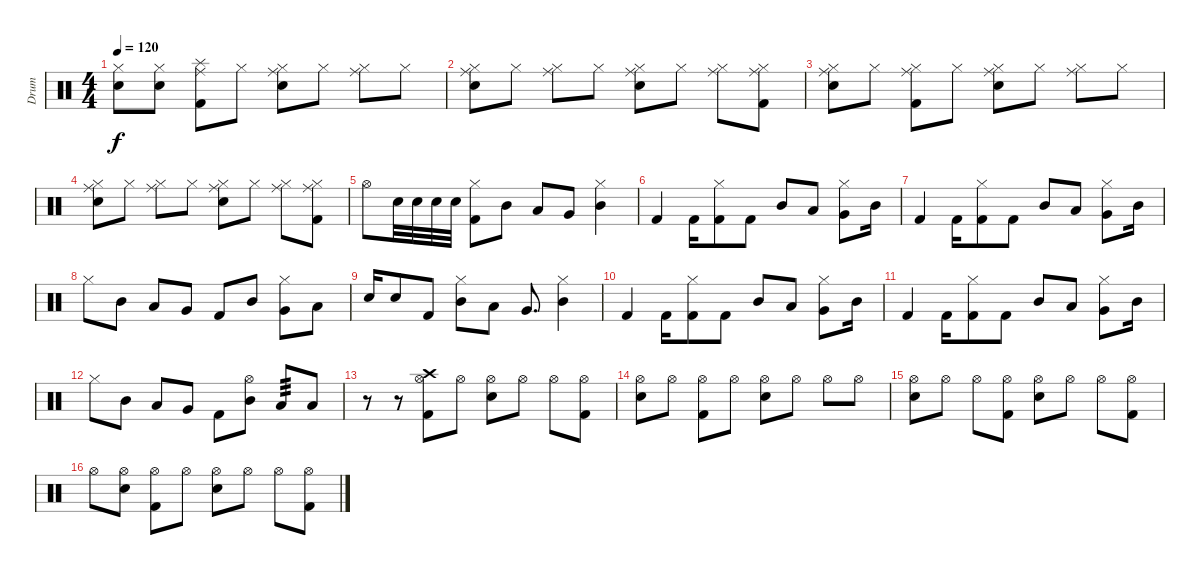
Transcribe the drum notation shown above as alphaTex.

\track ("Drum" "Drum") {instrument percussion}
\staff {score}
\articulation defaults
\ts (4 4)
\tempo 120
\clef neutral
\ks c
("Electric Snare (hit)" "Hi-Hat (closed)").8{dy f} ("Hi-Hat (closed)" "Electric Snare (hit)").8 ("Kick (hit) 2" "Ride (middle)" "Splash (hit)").8 "Hi-Hat (closed)".8 ("Electric Snare (hit)" "Hi-Hat (closed)" "Ride (middle)").8 "Hi-Hat (closed)".8 ("Hi-Hat (closed)" "Ride (middle)").8 "Hi-Hat (closed)".8 |
("Electric Snare (hit)" "Hi-Hat (closed)" "Ride (middle)").8 "Hi-Hat (closed)".8 ("Hi-Hat (closed)" "Ride (middle)").8 "Hi-Hat (closed)".8 ("Electric Snare (hit)" "Hi-Hat (closed)" "Ride (middle)").8 "Hi-Hat (closed)".8 ("Hi-Hat (closed)" "Ride (middle)").8 ("Kick (hit) 2" "Hi-Hat (closed)" "Ride (middle)").8 |
("Electric Snare (hit)" "Hi-Hat (closed)" "Ride (middle)").8 "Hi-Hat (closed)".8 ("Kick (hit) 2" "Hi-Hat (closed)" "Ride (middle)").8 "Hi-Hat (closed)".8 ("Electric Snare (hit)" "Hi-Hat (closed)" "Ride (middle)").8 "Hi-Hat (closed)".8 ("Hi-Hat (closed)" "Ride (middle)").8 "Hi-Hat (closed)".8 |
("Electric Snare (hit)" "Hi-Hat (closed)" "Ride (middle)").8 "Hi-Hat (closed)".8 ("Hi-Hat (closed)" "Ride (middle)").8 "Hi-Hat (closed)".8 ("Electric Snare (hit)" "Hi-Hat (closed)" "Ride (middle)").8 "Hi-Hat (closed)".8 ("Hi-Hat (closed)" "Ride (middle)").8 ("Kick (hit) 2" "Hi-Hat (closed)" "Ride (middle)").8 |
"Hi-Hat (open)".8 "Electric Snare (hit)".32 "Electric Snare (hit)".32 "Electric Snare (hit)".32 "Electric Snare (hit)".32 ("Kick (hit) 2" "Hi-Hat (closed)").8 "Mid Tom (hit)".8 "Low Tom (hit)".8 "Very Low Tom (hit)".8 ("Mid Tom (hit)" "Hi-Hat (closed)").4 |
"Kick (hit) 2".4 "Kick (hit) 2".16 ("Kick (hit) 2" "Hi-Hat (closed)").8 "Kick (hit) 2".8 "Mid Tom (hit)".8 "Low Tom (hit)".8 ("Very Low Tom (hit)" "Hi-Hat (closed)").8 "Mid Tom (hit)".16 |
"Kick (hit) 2".4 "Kick (hit) 2".16 ("Kick (hit) 2" "Hi-Hat (closed)").8 "Kick (hit) 2".8 "Mid Tom (hit)".8 "Low Tom (hit)".8 ("Very Low Tom (hit)" "Hi-Hat (closed)").8 "Mid Tom (hit)".16 |
"Hi-Hat (closed)".8 "Mid Tom (hit)".8 "Low Tom (hit)".8 "Very Low Tom (hit)".8 "Kick (hit) 2".8 "Mid Tom (hit)".8 ("Very Low Tom (hit)" "Hi-Hat (closed)").8 "Low Floor Tom (hit)".8 |
"Electric Snare (hit)".16 "Electric Snare (hit)".8 "Kick (hit) 2".8 ("Mid Tom (hit)" "Hi-Hat (closed)").8 "Low Tom (hit)".8 "Very Low Tom (hit)".8{d} ("Mid Tom (hit)" "Hi-Hat (closed)").4 |
"Kick (hit) 2".4 "Kick (hit) 2".16 ("Kick (hit) 2" "Hi-Hat (closed)").8 "Kick (hit) 2".8 "Mid Tom (hit)".8 "Low Tom (hit)".8 ("Very Low Tom (hit)" "Hi-Hat (closed)").8 "Mid Tom (hit)".16 |
"Kick (hit) 2".4 "Kick (hit) 2".16 ("Kick (hit) 2" "Hi-Hat (closed)").8 "Kick (hit) 2".8 "Mid Tom (hit)".8 "Low Tom (hit)".8 ("Very Low Tom (hit)" "Hi-Hat (closed)").8 "Mid Tom (hit)".16 |
"Hi-Hat (closed)".8 "Mid Tom (hit)".8 "Low Tom (hit)".8 "Very Low Tom (hit)".8 "Kick (hit) 2".8 ("Mid Tom (hit)" "Hi-Hat (open)").8 "Low Floor Tom (hit)".8{tp 3} "Low Floor Tom (hit)".8 |
r.8 r.8 ("Kick (hit) 2" "Crash high (hit)" "Hi-Hat (open)").8 "Hi-Hat (open)".8 ("Electric Snare (hit)" "Hi-Hat (open)").8 "Hi-Hat (open)".8 "Hi-Hat (open)".8 ("Hi-Hat (open)" "Kick (hit) 2").8 |
("Electric Snare (hit)" "Hi-Hat (open)").8 "Hi-Hat (open)".8 ("Kick (hit) 2" "Hi-Hat (open)").8 "Hi-Hat (open)".8 ("Electric Snare (hit)" "Hi-Hat (open)").8 "Hi-Hat (open)".8 "Hi-Hat (open)".8 "Hi-Hat (open)".8 |
("Electric Snare (hit)" "Hi-Hat (open)").8 "Hi-Hat (open)".8 "Hi-Hat (open)".8 ("Hi-Hat (open)" "Kick (hit) 2").8 ("Electric Snare (hit)" "Hi-Hat (open)").8 "Hi-Hat (open)".8 "Hi-Hat (open)".8 ("Kick (hit) 2" "Hi-Hat (open)").8 |
"Hi-Hat (open)".8 ("Hi-Hat (open)" "Electric Snare (hit)").8 ("Hi-Hat (open)" "Kick (hit) 2").8 "Hi-Hat (open)".8 ("Hi-Hat (open)" "Electric Snare (hit)").8 "Hi-Hat (open)".8 "Hi-Hat (open)".8 ("Hi-Hat (open)" "Kick (hit) 2").8
